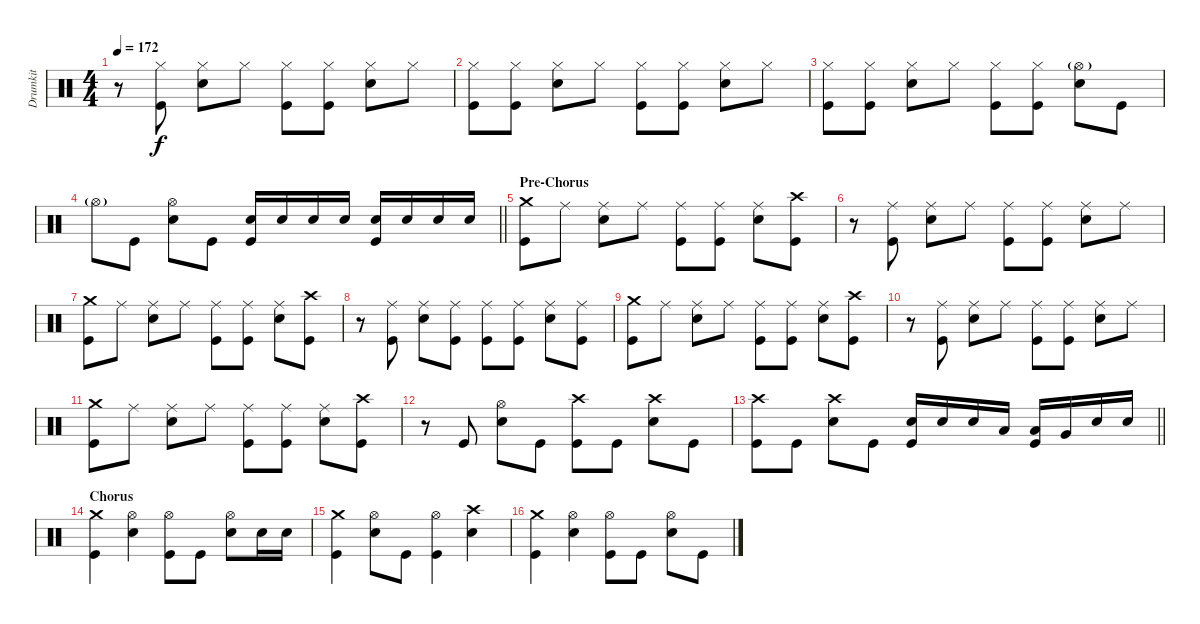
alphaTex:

\track ("Drumkit" "Drumkit") {instrument percussion}
\staff {score}
\articulation defaults
\ts (4 4)
\tempo 172
\clef neutral
\ks c
r.8{dy f} ("Hi-Hat (closed)" "Kick (hit)").8 ("Hi-Hat (closed)" "Snare (hit) 2").8 "Hi-Hat (closed)".8 ("Hi-Hat (closed)" "Kick (hit)").8 ("Hi-Hat (closed)" "Kick (hit)").8 ("Hi-Hat (closed)" "Snare (hit) 2").8 "Hi-Hat (closed)".8 |
("Hi-Hat (closed)" "Kick (hit)").8 ("Hi-Hat (closed)" "Kick (hit)").8 ("Hi-Hat (closed)" "Snare (hit) 2").8 "Hi-Hat (closed)".8 ("Hi-Hat (closed)" "Kick (hit)").8 ("Hi-Hat (closed)" "Kick (hit)").8 ("Hi-Hat (closed)" "Snare (hit) 2").8 "Hi-Hat (closed)".8 |
("Hi-Hat (closed)" "Kick (hit)").8 ("Hi-Hat (closed)" "Kick (hit)").8 ("Hi-Hat (closed)" "Snare (hit) 2").8 "Hi-Hat (closed)".8 ("Hi-Hat (closed)" "Kick (hit)").8 ("Hi-Hat (closed)" "Kick (hit)").8 ("Hi-Hat (open)"{g} "Snare (hit) 2").8 "Kick (hit)".8 |
\barLineRight lightlight "Hi-Hat (open)"{g}.8 "Kick (hit)".8
("Hi-Hat (open)" "Snare (hit) 2").8 "Kick (hit)".8 ("Snare (hit) 2" "Kick (hit)").16 "Snare (hit) 2".16 "Snare (hit) 2".16 "Snare (hit) 2".16 ("Snare (hit) 2" "Kick (hit)").16 "Snare (hit) 2".16 "Snare (hit) 2".16 "Snare (hit) 2".16 |
\section ("" "Pre-Chorus")
("Crash medium (hit)" "Kick (hit)").8 "Ride (middle)".8 ("Ride (middle)" "Snare (hit) 2").8 "Ride (middle)".8 ("Ride (middle)" "Kick (hit)").8 ("Ride (middle)" "Kick (hit)").8 ("Ride (middle)" "Snare (hit) 2").8 ("Crash high (hit)" "Kick (hit)").8 |
r.8 ("Ride (middle)" "Kick (hit)").8 ("Ride (middle)" "Snare (hit) 2").8 "Ride (middle)".8 ("Ride (middle)" "Kick (hit)").8 ("Ride (middle)" "Kick (hit)").8 ("Ride (middle)" "Snare (hit) 2").8 "Ride (middle)".8 |
("Crash medium (hit)" "Kick (hit)").8 "Ride (middle)".8 ("Ride (middle)" "Snare (hit) 2").8 "Ride (middle)".8 ("Ride (middle)" "Kick (hit)").8 ("Ride (middle)" "Kick (hit)").8 ("Ride (middle)" "Snare (hit) 2").8 ("Crash high (hit)" "Kick (hit)").8 |
r.8 ("Ride (middle)" "Kick (hit)").8 ("Ride (middle)" "Snare (hit) 2").8 ("Ride (middle)" "Kick (hit)").8 ("Ride (middle)" "Kick (hit)").8 ("Ride (middle)" "Kick (hit)").8 ("Ride (middle)" "Snare (hit) 2").8 ("Ride (middle)" "Kick (hit)").8 |
("Crash medium (hit)" "Kick (hit)").8 "Ride (middle)".8 ("Ride (middle)" "Snare (hit) 2").8 "Ride (middle)".8 ("Ride (middle)" "Kick (hit)").8 ("Ride (middle)" "Kick (hit)").8 ("Ride (middle)" "Snare (hit) 2").8 ("Crash high (hit)" "Kick (hit)").8 |
r.8 ("Ride (middle)" "Kick (hit)").8 ("Ride (middle)" "Snare (hit) 2").8 "Ride (middle)".8 ("Ride (middle)" "Kick (hit)").8 ("Ride (middle)" "Kick (hit)").8 ("Ride (middle)" "Snare (hit) 2").8 "Ride (middle)".8 |
("Crash medium (hit)" "Kick (hit)").8 "Ride (middle)".8 ("Ride (middle)" "Snare (hit) 2").8 "Ride (middle)".8 ("Ride (middle)" "Kick (hit)").8 ("Ride (middle)" "Kick (hit)").8 ("Ride (middle)" "Snare (hit) 2").8 ("Crash high (hit)" "Kick (hit)").8 |
r.8 "Kick (hit)".8 ("Hi-Hat (open)" "Snare (hit) 2").8 "Kick (hit)".8 ("Crash high (hit)" "Kick (hit)").8 "Kick (hit)".8 ("Crash high (hit)" "Snare (hit) 2").8 "Kick (hit)".8 |
\barLineRight lightlight
("Crash high (hit)" "Kick (hit)").8 "Kick (hit)".8 ("Crash high (hit)" "Snare (hit) 2").8 "Kick (hit)".8 ("Snare (hit) 2" "Kick (hit)").16 "Snare (hit) 2".16 "Snare (hit) 2".16 "Low Tom (hit)".16 ("Low Tom (hit)" "Kick (hit)").16 "Very Low Tom (hit)".16 "Snare (hit) 2".16 "Snare (hit) 2".16 |
\section ("" "Chorus")
("Crash medium (hit)" "Kick (hit)").4 ("Hi-Hat (open)" "Snare (hit) 2").4 ("Hi-Hat (open)" "Kick (hit)").8 "Kick (hit)".8 ("Hi-Hat (open)" "Snare (hit) 2").8 "Snare (hit) 2".16 "Snare (hit) 2".16 |
("Crash medium (hit)" "Kick (hit)").4 ("Hi-Hat (open)" "Snare (hit) 2").8 "Kick (hit)".8 ("Hi-Hat (open)" "Kick (hit)").4 ("Crash high (hit)" "Snare (hit) 2").4 |
("Crash medium (hit)" "Kick (hit)").4 ("Hi-Hat (open)" "Snare (hit) 2").4 ("Hi-Hat (open)" "Kick (hit)").8 "Kick (hit)".8 ("Hi-Hat (open)" "Snare (hit) 2").8 "Kick (hit)".8
